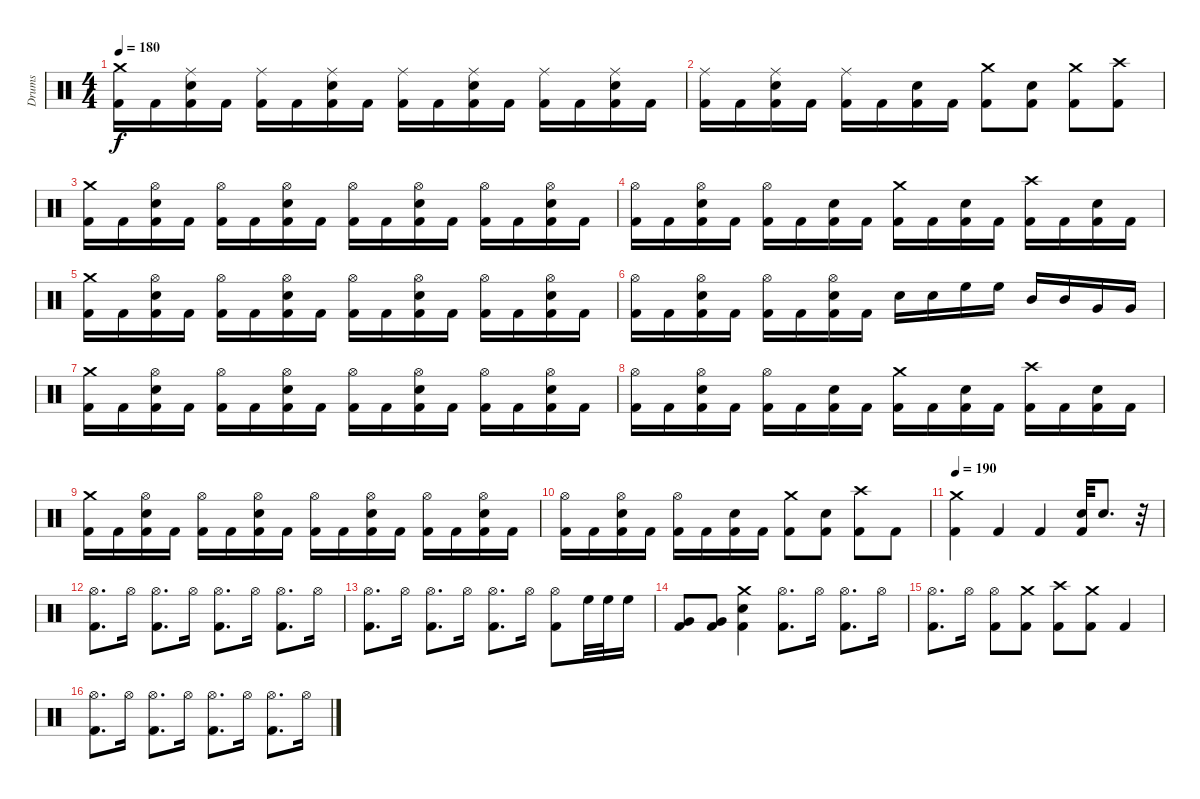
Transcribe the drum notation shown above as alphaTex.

\track ("Drums" "Drums") {instrument percussion}
\staff {score}
\articulation defaults
\ts (4 4)
\tempo 180
\clef neutral
\ks c
("Crash medium (hit)" "Kick (hit) 2").16{dy f} "Kick (hit) 2".16 ("Ride (middle)" "Electric Snare (hit)" "Kick (hit) 2").16 "Kick (hit) 2".16 ("Ride (middle)" "Kick (hit) 2").16 "Kick (hit) 2".16 ("Ride (middle)" "Electric Snare (hit)" "Kick (hit) 2").16 "Kick (hit) 2".16 ("Ride (middle)" "Kick (hit) 2").16 "Kick (hit) 2".16 ("Ride (middle)" "Electric Snare (hit)" "Kick (hit) 2").16 "Kick (hit) 2".16 ("Ride (middle)" "Kick (hit) 2").16 "Kick (hit) 2".16 ("Ride (middle)" "Electric Snare (hit)" "Kick (hit) 2").16 "Kick (hit) 2".16 |
("Ride (middle)" "Kick (hit) 2").16 "Kick (hit) 2".16 ("Ride (middle)" "Electric Snare (hit)" "Kick (hit) 2").16 "Kick (hit) 2".16 ("Ride (middle)" "Kick (hit) 2").16 "Kick (hit) 2".16 ("Electric Snare (hit)" "Kick (hit) 2").16 "Kick (hit) 2".16 ("Crash medium (hit)" "Kick (hit) 2").8 ("Electric Snare (hit)" "Kick (hit) 2").8 ("Crash medium (hit)" "Kick (hit) 2").8 ("Crash high (hit)" "Kick (hit) 2").8 |
("Crash medium (hit)" "Kick (hit) 2").16 "Kick (hit) 2".16 ("Hi-Hat (open)" "Electric Snare (hit)" "Kick (hit) 2").16 "Kick (hit) 2".16 ("Hi-Hat (open)" "Kick (hit) 2").16 "Kick (hit) 2".16 ("Hi-Hat (open)" "Electric Snare (hit)" "Kick (hit) 2").16 "Kick (hit) 2".16 ("Hi-Hat (open)" "Kick (hit) 2").16 "Kick (hit) 2".16 ("Hi-Hat (open)" "Electric Snare (hit)" "Kick (hit) 2").16 "Kick (hit) 2".16 ("Hi-Hat (open)" "Kick (hit) 2").16 "Kick (hit) 2".16 ("Hi-Hat (open)" "Electric Snare (hit)" "Kick (hit) 2").16 "Kick (hit) 2".16 |
("Hi-Hat (open)" "Kick (hit) 2").16 "Kick (hit) 2".16 ("Hi-Hat (open)" "Electric Snare (hit)" "Kick (hit) 2").16 "Kick (hit) 2".16 ("Hi-Hat (open)" "Kick (hit) 2").16 "Kick (hit) 2".16 ("Electric Snare (hit)" "Kick (hit) 2").16 "Kick (hit) 2".16 ("Crash medium (hit)" "Kick (hit) 2").16 "Kick (hit) 2".16 ("Electric Snare (hit)" "Kick (hit) 2").16 "Kick (hit) 2".16 ("Crash high (hit)" "Kick (hit) 2").16 "Kick (hit) 2".16 ("Electric Snare (hit)" "Kick (hit) 2").16 "Kick (hit) 2".16 |
("Crash medium (hit)" "Kick (hit) 2").16 "Kick (hit) 2".16 ("Hi-Hat (open)" "Electric Snare (hit)" "Kick (hit) 2").16 "Kick (hit) 2".16 ("Hi-Hat (open)" "Kick (hit) 2").16 "Kick (hit) 2".16 ("Hi-Hat (open)" "Electric Snare (hit)" "Kick (hit) 2").16 "Kick (hit) 2".16 ("Hi-Hat (open)" "Kick (hit) 2").16 "Kick (hit) 2".16 ("Hi-Hat (open)" "Electric Snare (hit)" "Kick (hit) 2").16 "Kick (hit) 2".16 ("Hi-Hat (open)" "Kick (hit) 2").16 "Kick (hit) 2".16 ("Hi-Hat (open)" "Electric Snare (hit)" "Kick (hit) 2").16 "Kick (hit) 2".16 |
("Hi-Hat (open)" "Kick (hit) 2").16 "Kick (hit) 2".16 ("Hi-Hat (open)" "Electric Snare (hit)" "Kick (hit) 2").16 "Kick (hit) 2".16 ("Hi-Hat (open)" "Kick (hit) 2").16 "Kick (hit) 2".16 ("Hi-Hat (open)" "Electric Snare (hit)" "Kick (hit) 2").16 "Kick (hit) 2".16 "Electric Snare (hit)".16 "Electric Snare (hit)".16 "High Floor Tom (hit)".16 "High Floor Tom (hit)".16 "Mid Tom (hit)".16 "Mid Tom (hit)".16 "Very Low Tom (hit)".16 "Very Low Tom (hit)".16 |
("Crash medium (hit)" "Kick (hit) 2").16 "Kick (hit) 2".16 ("Hi-Hat (open)" "Electric Snare (hit)" "Kick (hit) 2").16 "Kick (hit) 2".16 ("Hi-Hat (open)" "Kick (hit) 2").16 "Kick (hit) 2".16 ("Hi-Hat (open)" "Electric Snare (hit)" "Kick (hit) 2").16 "Kick (hit) 2".16 ("Hi-Hat (open)" "Kick (hit) 2").16 "Kick (hit) 2".16 ("Hi-Hat (open)" "Electric Snare (hit)" "Kick (hit) 2").16 "Kick (hit) 2".16 ("Hi-Hat (open)" "Kick (hit) 2").16 "Kick (hit) 2".16 ("Hi-Hat (open)" "Electric Snare (hit)" "Kick (hit) 2").16 "Kick (hit) 2".16 |
("Hi-Hat (open)" "Kick (hit) 2").16 "Kick (hit) 2".16 ("Hi-Hat (open)" "Electric Snare (hit)" "Kick (hit) 2").16 "Kick (hit) 2".16 ("Hi-Hat (open)" "Kick (hit) 2").16 "Kick (hit) 2".16 ("Electric Snare (hit)" "Kick (hit) 2").16 "Kick (hit) 2".16 ("Crash medium (hit)" "Kick (hit) 2").16 "Kick (hit) 2".16 ("Electric Snare (hit)" "Kick (hit) 2").16 "Kick (hit) 2".16 ("Crash high (hit)" "Kick (hit) 2").16 "Kick (hit) 2".16 ("Electric Snare (hit)" "Kick (hit) 2").16 "Kick (hit) 2".16 |
("Crash medium (hit)" "Kick (hit) 2").16 "Kick (hit) 2".16 ("Hi-Hat (open)" "Electric Snare (hit)" "Kick (hit) 2").16 "Kick (hit) 2".16 ("Hi-Hat (open)" "Kick (hit) 2").16 "Kick (hit) 2".16 ("Hi-Hat (open)" "Electric Snare (hit)" "Kick (hit) 2").16 "Kick (hit) 2".16 ("Hi-Hat (open)" "Kick (hit) 2").16 "Kick (hit) 2".16 ("Hi-Hat (open)" "Electric Snare (hit)" "Kick (hit) 2").16 "Kick (hit) 2".16 ("Hi-Hat (open)" "Kick (hit) 2").16 "Kick (hit) 2".16 ("Hi-Hat (open)" "Electric Snare (hit)" "Kick (hit) 2").16 "Kick (hit) 2".16 |
("Hi-Hat (open)" "Kick (hit) 2").16 "Kick (hit) 2".16 ("Hi-Hat (open)" "Electric Snare (hit)" "Kick (hit) 2").16 "Kick (hit) 2".16 ("Hi-Hat (open)" "Kick (hit) 2").16 "Kick (hit) 2".16 ("Electric Snare (hit)" "Kick (hit) 2").16 "Kick (hit) 2".16 ("Crash medium (hit)" "Kick (hit) 2").8 ("Electric Snare (hit)" "Kick (hit) 2").8 ("Crash high (hit)" "Kick (hit) 2").8 "Kick (hit) 2".8 |
\tempo 190
("Crash medium (hit)" "Kick (hit) 2").4 "Kick (hit) 2".4 "Kick (hit) 2".4 ("Electric Snare (hit)" "Kick (hit) 2").32 "Electric Snare (hit)".8{d} r.32 |
("Hi-Hat (open)" "Kick (hit) 2").8{d} "Hi-Hat (open)".16 ("Hi-Hat (open)" "Kick (hit) 2").8{d} "Hi-Hat (open)".16 ("Hi-Hat (open)" "Kick (hit) 2").8{d} "Hi-Hat (open)".16 ("Hi-Hat (open)" "Kick (hit) 2").8{d} "Hi-Hat (open)".16 |
("Hi-Hat (open)" "Kick (hit) 2").8{d} "Hi-Hat (open)".16 ("Hi-Hat (open)" "Kick (hit) 2").8{d} "Hi-Hat (open)".16 ("Hi-Hat (open)" "Kick (hit) 2").8{d} "Hi-Hat (open)".16 ("Hi-Hat (open)" "Kick (hit) 2").8 "High Floor Tom (hit)".32 "High Floor Tom (hit)".32 "High Floor Tom (hit)".16 |
("Very Low Tom (hit)" "Kick (hit) 2").8 ("Very Low Tom (hit)" "Kick (hit) 2").8 ("Crash medium (hit)" "Electric Snare (hit)" "Kick (hit) 2").4 ("Hi-Hat (open)" "Kick (hit) 2").8{d} "Hi-Hat (open)".16 ("Hi-Hat (open)" "Kick (hit) 2").8{d} "Hi-Hat (open)".16 |
("Hi-Hat (open)" "Kick (hit) 2").8{d} "Hi-Hat (open)".16 ("Hi-Hat (open)" "Kick (hit) 2").8 ("Crash medium (hit)" "Kick (hit) 2").8 ("Crash high (hit)" "Kick (hit) 2").8 ("Crash medium (hit)" "Kick (hit) 2").8 "Kick (hit) 2".4 |
("Hi-Hat (open)" "Kick (hit) 2").8{d} "Hi-Hat (open)".16 ("Hi-Hat (open)" "Kick (hit) 2").8{d} "Hi-Hat (open)".16 ("Hi-Hat (open)" "Kick (hit) 2").8{d} "Hi-Hat (open)".16 ("Hi-Hat (open)" "Kick (hit) 2").8{d} "Hi-Hat (open)".16
